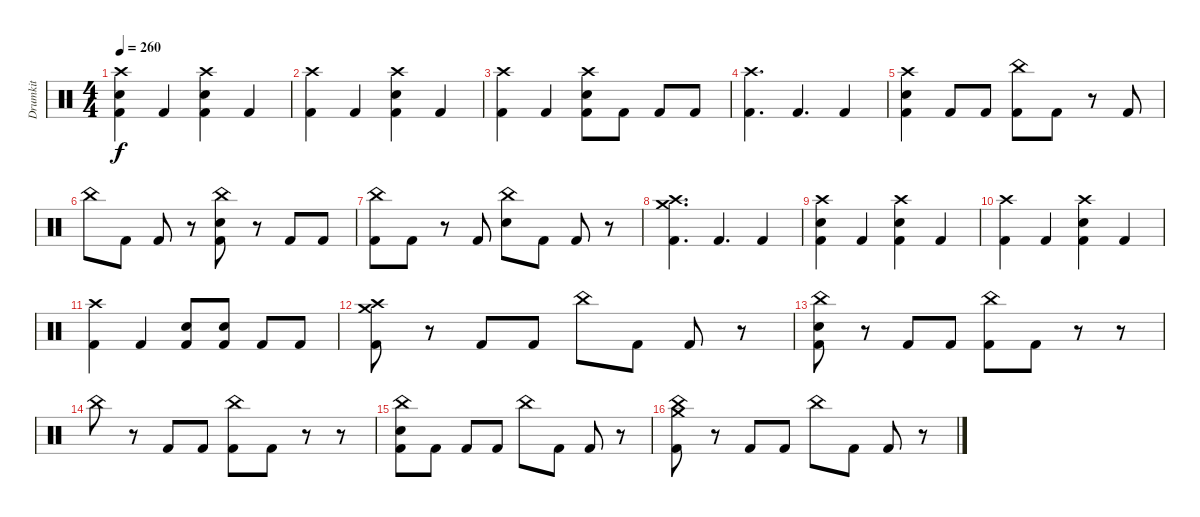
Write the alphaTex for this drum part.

\track ("Drumkit" "Drumkit") {instrument percussion}
\staff {score}
\articulation defaults
\ts (4 4)
\tempo 260
\clef neutral
\ks c
("Crash high (hit)" "Electric Snare (hit)" "Kick (hit) 2").4{dy f} "Kick (hit) 2".4 ("Crash high (hit)" "Electric Snare (hit)" "Kick (hit) 2").4 "Kick (hit) 2".4 |
("Crash high (hit)" "Kick (hit) 2").4 "Kick (hit) 2".4 ("Crash high (hit)" "Electric Snare (hit)" "Kick (hit) 2").4 "Kick (hit) 2".4 |
("Crash high (hit)" "Kick (hit) 2").4 "Kick (hit) 2".4 ("Crash high (hit)" "Electric Snare (hit)" "Kick (hit) 2").8 "Kick (hit) 2".8 "Kick (hit) 2".8 "Kick (hit) 2".8 |
("Crash high (hit)" "Kick (hit) 2").4{d} "Kick (hit) 2".4{d} "Kick (hit) 2".4 |
("Crash high (hit)" "Electric Snare (hit)" "Kick (hit) 2").4 "Kick (hit) 2".8 "Kick (hit) 2".8 ("China (hit)" "Kick (hit) 2").8 "Kick (hit) 2".8 r.8 "Kick (hit) 2".8 |
"China (hit)".8 "Kick (hit) 2".8 "Kick (hit) 2".8 r.8 ("China (hit)" "Electric Snare (hit)" "Kick (hit) 2").8 r.8 "Kick (hit) 2".8 "Kick (hit) 2".8 |
("China (hit)" "Kick (hit) 2").8 "Kick (hit) 2".8 r.8 "Kick (hit) 2".8 ("China (hit)" "Electric Snare (hit)").8 "Kick (hit) 2".8 "Kick (hit) 2".8 r.8 |
("Crash medium (hit)" "Crash high (hit)" "Kick (hit) 2").4{d} "Kick (hit) 2".4{d} "Kick (hit) 2".4 |
("Crash high (hit)" "Electric Snare (hit)" "Kick (hit) 2").4 "Kick (hit) 2".4 ("Crash high (hit)" "Electric Snare (hit)" "Kick (hit) 2").4 "Kick (hit) 2".4 |
("Crash high (hit)" "Kick (hit) 2").4 "Kick (hit) 2".4 ("Crash high (hit)" "Electric Snare (hit)" "Kick (hit) 2").4 "Kick (hit) 2".4 |
("Crash high (hit)" "Kick (hit) 2").4 "Kick (hit) 2".4 ("Electric Snare (hit)" "Kick (hit) 2").8 ("Electric Snare (hit)" "Kick (hit) 2").8 "Kick (hit) 2".8 "Kick (hit) 2".8 |
("Crash medium (hit)" "Crash high (hit)" "Kick (hit) 2").8 r.8 "Kick (hit) 2".8 "Kick (hit) 2".8 "China (hit)".8 "Kick (hit) 2".8 "Kick (hit) 2".8 r.8 |
("China (hit)" "Electric Snare (hit)" "Kick (hit) 2").8 r.8 "Kick (hit) 2".8 "Kick (hit) 2".8 ("China (hit)" "Kick (hit) 2").8 "Kick (hit) 2".8 r.8 r.8 |
"China (hit)".8 r.8 "Kick (hit) 2".8 "Kick (hit) 2".8 ("China (hit)" "Kick (hit) 2").8 "Kick (hit) 2".8 r.8 r.8 |
("China (hit)" "Electric Snare (hit)" "Kick (hit) 2").8 "Kick (hit) 2".8 "Kick (hit) 2".8 "Kick (hit) 2".8 "China (hit)".8 "Kick (hit) 2".8 "Kick (hit) 2".8 r.8 |
("Crash medium (hit)" "China (hit)" "Kick (hit) 2").8 r.8 "Kick (hit) 2".8 "Kick (hit) 2".8 "China (hit)".8 "Kick (hit) 2".8 "Kick (hit) 2".8 r.8
